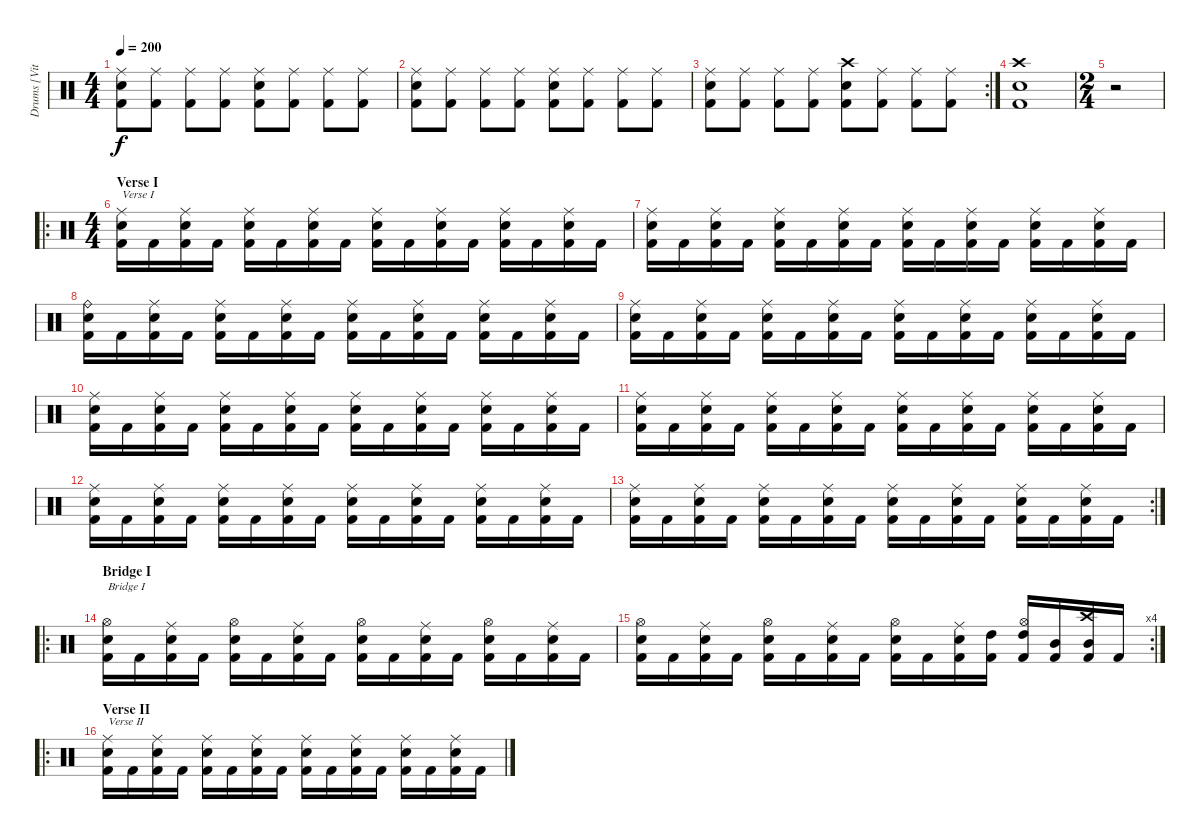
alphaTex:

\track ("Drums [Vitek]" "Drums [Vit") {instrument percussion}
\staff {score}
\articulation defaults
\ts (4 4)
\tempo 200
\clef neutral
\ks c
("Ride (middle)" "Electric Snare (hit)" "Kick (hit) 2").8{dy f} ("Ride (middle)" "Kick (hit) 2").8 ("Ride (middle)" "Kick (hit) 2").8 ("Ride (middle)" "Kick (hit) 2").8 ("Ride (middle)" "Electric Snare (hit)" "Kick (hit) 2").8 ("Ride (middle)" "Kick (hit) 2").8 ("Ride (middle)" "Kick (hit) 2").8 ("Ride (middle)" "Kick (hit) 2").8 |
("Ride (middle)" "Electric Snare (hit)" "Kick (hit) 2").8 ("Ride (middle)" "Kick (hit) 2").8 ("Ride (middle)" "Kick (hit) 2").8 ("Ride (middle)" "Kick (hit) 2").8 ("Ride (middle)" "Electric Snare (hit)" "Kick (hit) 2").8 ("Ride (middle)" "Kick (hit) 2").8 ("Ride (middle)" "Kick (hit) 2").8 ("Ride (middle)" "Kick (hit) 2").8 |
\rc 2
("Ride (middle)" "Electric Snare (hit)" "Kick (hit) 2").8 ("Ride (middle)" "Kick (hit) 2").8 ("Ride (middle)" "Kick (hit) 2").8 ("Ride (middle)" "Kick (hit) 2").8 ("Crash high (hit)" "Electric Snare (hit)" "Kick (hit) 2").8 ("Ride (middle)" "Kick (hit) 2").8 ("Ride (middle)" "Kick (hit) 2").8 ("Ride (middle)" "Kick (hit) 2").8 |
("Crash high (hit)" "Electric Snare (hit)" "Kick (hit) 2").1 |
\ts (2 4)
r.2 |
\ro
\ts (4 4)
\section ("" "Verse I")
("Ride (middle)" "Electric Snare (hit)" "Kick (hit) 2").16{txt "Verse I"} "Kick (hit) 2".16 ("Ride (middle)" "Electric Snare (hit)" "Kick (hit) 2").16 "Kick (hit) 2".16 ("Ride (middle)" "Electric Snare (hit)" "Kick (hit) 2").16 "Kick (hit) 2".16 ("Ride (middle)" "Electric Snare (hit)" "Kick (hit) 2").16 "Kick (hit) 2".16 ("Ride (middle)" "Electric Snare (hit)" "Kick (hit) 2").16 "Kick (hit) 2".16 ("Ride (middle)" "Electric Snare (hit)" "Kick (hit) 2").16 "Kick (hit) 2".16 ("Ride (middle)" "Electric Snare (hit)" "Kick (hit) 2").16 "Kick (hit) 2".16 ("Ride (middle)" "Electric Snare (hit)" "Kick (hit) 2").16 "Kick (hit) 2".16 |
("Ride (middle)" "Electric Snare (hit)" "Kick (hit) 2").16 "Kick (hit) 2".16 ("Ride (middle)" "Electric Snare (hit)" "Kick (hit) 2").16 "Kick (hit) 2".16 ("Ride (middle)" "Electric Snare (hit)" "Kick (hit) 2").16 "Kick (hit) 2".16 ("Ride (middle)" "Electric Snare (hit)" "Kick (hit) 2").16 "Kick (hit) 2".16 ("Ride (middle)" "Electric Snare (hit)" "Kick (hit) 2").16 "Kick (hit) 2".16 ("Ride (middle)" "Electric Snare (hit)" "Kick (hit) 2").16 "Kick (hit) 2".16 ("Ride (middle)" "Electric Snare (hit)" "Kick (hit) 2").16 "Kick (hit) 2".16 ("Ride (middle)" "Electric Snare (hit)" "Kick (hit) 2").16 "Kick (hit) 2".16 |
("Ride (bell)" "Electric Snare (hit)" "Kick (hit) 2").16 "Kick (hit) 2".16 ("Ride (middle)" "Electric Snare (hit)" "Kick (hit) 2").16 "Kick (hit) 2".16 ("Ride (middle)" "Electric Snare (hit)" "Kick (hit) 2").16 "Kick (hit) 2".16 ("Ride (middle)" "Electric Snare (hit)" "Kick (hit) 2").16 "Kick (hit) 2".16 ("Ride (middle)" "Electric Snare (hit)" "Kick (hit) 2").16 "Kick (hit) 2".16 ("Ride (middle)" "Electric Snare (hit)" "Kick (hit) 2").16 "Kick (hit) 2".16 ("Ride (middle)" "Electric Snare (hit)" "Kick (hit) 2").16 "Kick (hit) 2".16 ("Ride (middle)" "Electric Snare (hit)" "Kick (hit) 2").16 "Kick (hit) 2".16 |
("Ride (middle)" "Electric Snare (hit)" "Kick (hit) 2").16 "Kick (hit) 2".16 ("Ride (middle)" "Electric Snare (hit)" "Kick (hit) 2").16 "Kick (hit) 2".16 ("Ride (middle)" "Electric Snare (hit)" "Kick (hit) 2").16 "Kick (hit) 2".16 ("Ride (middle)" "Electric Snare (hit)" "Kick (hit) 2").16 "Kick (hit) 2".16 ("Ride (middle)" "Electric Snare (hit)" "Kick (hit) 2").16 "Kick (hit) 2".16 ("Ride (middle)" "Electric Snare (hit)" "Kick (hit) 2").16 "Kick (hit) 2".16 ("Ride (middle)" "Electric Snare (hit)" "Kick (hit) 2").16 "Kick (hit) 2".16 ("Ride (middle)" "Electric Snare (hit)" "Kick (hit) 2").16 "Kick (hit) 2".16 |
("Ride (middle)" "Electric Snare (hit)" "Kick (hit) 2").16 "Kick (hit) 2".16 ("Ride (middle)" "Electric Snare (hit)" "Kick (hit) 2").16 "Kick (hit) 2".16 ("Ride (middle)" "Electric Snare (hit)" "Kick (hit) 2").16 "Kick (hit) 2".16 ("Ride (middle)" "Electric Snare (hit)" "Kick (hit) 2").16 "Kick (hit) 2".16 ("Ride (middle)" "Electric Snare (hit)" "Kick (hit) 2").16 "Kick (hit) 2".16 ("Ride (middle)" "Electric Snare (hit)" "Kick (hit) 2").16 "Kick (hit) 2".16 ("Ride (middle)" "Electric Snare (hit)" "Kick (hit) 2").16 "Kick (hit) 2".16 ("Ride (middle)" "Electric Snare (hit)" "Kick (hit) 2").16 "Kick (hit) 2".16 |
("Ride (middle)" "Electric Snare (hit)" "Kick (hit) 2").16 "Kick (hit) 2".16 ("Ride (middle)" "Electric Snare (hit)" "Kick (hit) 2").16 "Kick (hit) 2".16 ("Ride (middle)" "Electric Snare (hit)" "Kick (hit) 2").16 "Kick (hit) 2".16 ("Ride (middle)" "Electric Snare (hit)" "Kick (hit) 2").16 "Kick (hit) 2".16 ("Ride (middle)" "Electric Snare (hit)" "Kick (hit) 2").16 "Kick (hit) 2".16 ("Ride (middle)" "Electric Snare (hit)" "Kick (hit) 2").16 "Kick (hit) 2".16 ("Ride (middle)" "Electric Snare (hit)" "Kick (hit) 2").16 "Kick (hit) 2".16 ("Ride (middle)" "Electric Snare (hit)" "Kick (hit) 2").16 "Kick (hit) 2".16 |
("Ride (middle)" "Electric Snare (hit)" "Kick (hit) 2").16 "Kick (hit) 2".16 ("Ride (middle)" "Electric Snare (hit)" "Kick (hit) 2").16 "Kick (hit) 2".16 ("Ride (middle)" "Electric Snare (hit)" "Kick (hit) 2").16 "Kick (hit) 2".16 ("Ride (middle)" "Electric Snare (hit)" "Kick (hit) 2").16 "Kick (hit) 2".16 ("Ride (middle)" "Electric Snare (hit)" "Kick (hit) 2").16 "Kick (hit) 2".16 ("Ride (middle)" "Electric Snare (hit)" "Kick (hit) 2").16 "Kick (hit) 2".16 ("Ride (middle)" "Electric Snare (hit)" "Kick (hit) 2").16 "Kick (hit) 2".16 ("Ride (middle)" "Electric Snare (hit)" "Kick (hit) 2").16 "Kick (hit) 2".16 |
\rc 2
("Ride (middle)" "Electric Snare (hit)" "Kick (hit) 2").16 "Kick (hit) 2".16 ("Ride (middle)" "Electric Snare (hit)" "Kick (hit) 2").16 "Kick (hit) 2".16 ("Ride (middle)" "Electric Snare (hit)" "Kick (hit) 2").16 "Kick (hit) 2".16 ("Ride (middle)" "Electric Snare (hit)" "Kick (hit) 2").16 "Kick (hit) 2".16 ("Ride (middle)" "Electric Snare (hit)" "Kick (hit) 2").16 "Kick (hit) 2".16 ("Ride (middle)" "Electric Snare (hit)" "Kick (hit) 2").16 "Kick (hit) 2".16 ("Ride (middle)" "Electric Snare (hit)" "Kick (hit) 2").16 "Kick (hit) 2".16 ("Ride (middle)" "Electric Snare (hit)" "Kick (hit) 2").16 "Kick (hit) 2".16 |
\ro
\section ("" "Bridge I")
("Hi-Hat (open)" "Electric Snare (hit)" "Kick (hit) 2").16{txt "Bridge I"} "Kick (hit) 2".16 ("Ride (middle)" "Electric Snare (hit)" "Kick (hit) 2").16 "Kick (hit) 2".16 ("Hi-Hat (open)" "Electric Snare (hit)" "Kick (hit) 2").16 "Kick (hit) 2".16 ("Ride (middle)" "Electric Snare (hit)" "Kick (hit) 2").16 "Kick (hit) 2".16 ("Hi-Hat (open)" "Electric Snare (hit)" "Kick (hit) 2").16 "Kick (hit) 2".16 ("Ride (middle)" "Electric Snare (hit)" "Kick (hit) 2").16 "Kick (hit) 2".16 ("Hi-Hat (open)" "Electric Snare (hit)" "Kick (hit) 2").16 "Kick (hit) 2".16 ("Ride (middle)" "Electric Snare (hit)" "Kick (hit) 2").16 "Kick (hit) 2".16 |
\rc 4
("Hi-Hat (open)" "Electric Snare (hit)" "Kick (hit) 2").16 "Kick (hit) 2".16 ("Ride (middle)" "Electric Snare (hit)" "Kick (hit) 2").16 "Kick (hit) 2".16 ("Hi-Hat (open)" "Electric Snare (hit)" "Kick (hit) 2").16 "Kick (hit) 2".16 ("Ride (middle)" "Electric Snare (hit)" "Kick (hit) 2").16 "Kick (hit) 2".16 ("Hi-Hat (open)" "Electric Snare (hit)" "Kick (hit) 2").16 "Kick (hit) 2".16 ("Ride (middle)" "Electric Snare (hit)" "Kick (hit) 2").16 ("High Tom (hit)" "Kick (hit) 2").16 ("Hi-Hat (open)" "High Tom (hit)" "Kick (hit) 2").16 ("Mid Tom (hit)" "Kick (hit) 2").16 ("Crash high (hit)" "Mid Tom (hit)" "Kick (hit) 2").16 "Kick (hit) 2".16 |
\ro
\section ("" "Verse II")
("Ride (middle)" "Electric Snare (hit)" "Kick (hit) 2").16{txt "Verse II"} "Kick (hit) 2".16 ("Ride (middle)" "Electric Snare (hit)" "Kick (hit) 2").16 "Kick (hit) 2".16 ("Ride (middle)" "Electric Snare (hit)" "Kick (hit) 2").16 "Kick (hit) 2".16 ("Ride (middle)" "Electric Snare (hit)" "Kick (hit) 2").16 "Kick (hit) 2".16 ("Ride (middle)" "Electric Snare (hit)" "Kick (hit) 2").16 "Kick (hit) 2".16 ("Ride (middle)" "Electric Snare (hit)" "Kick (hit) 2").16 "Kick (hit) 2".16 ("Ride (middle)" "Electric Snare (hit)" "Kick (hit) 2").16 "Kick (hit) 2".16 ("Ride (middle)" "Electric Snare (hit)" "Kick (hit) 2").16 "Kick (hit) 2".16
